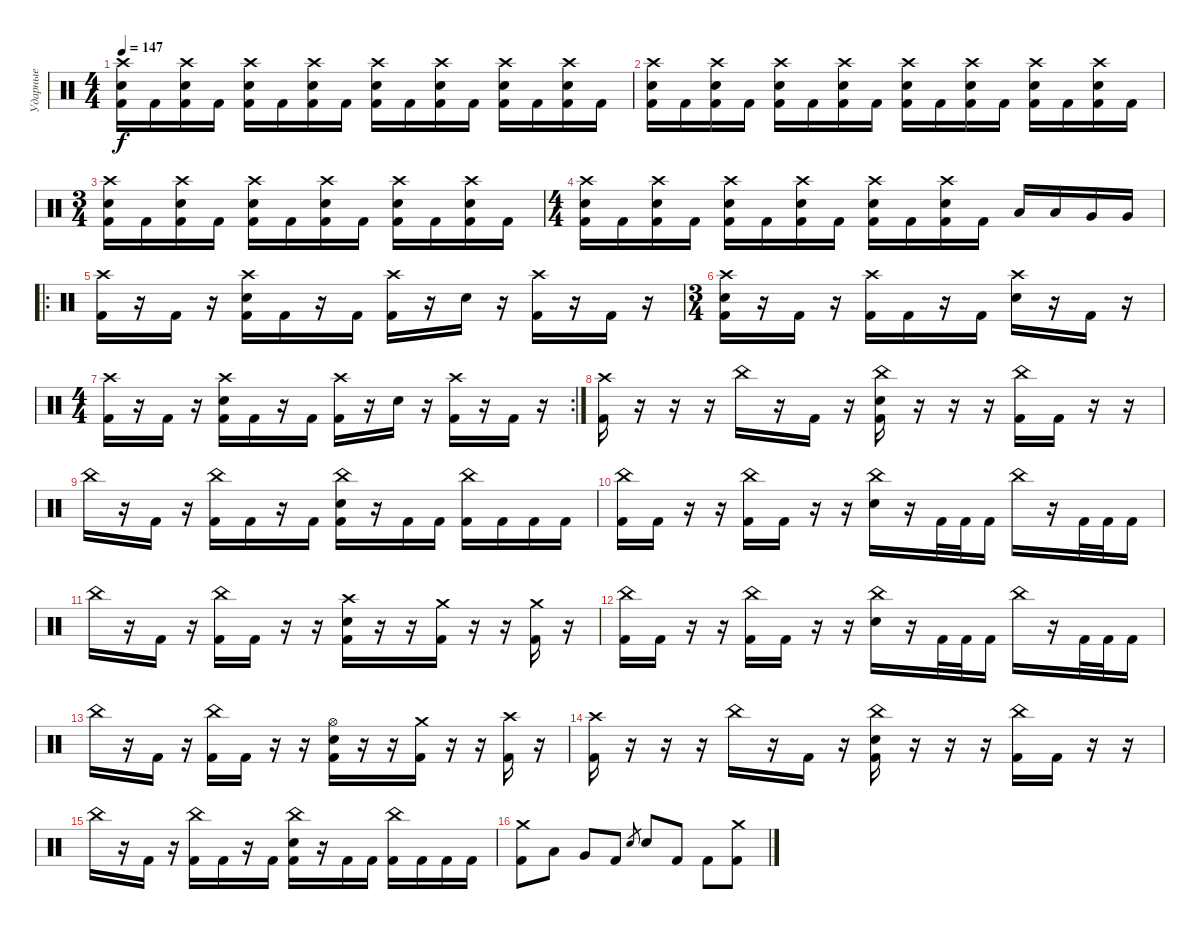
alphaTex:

\track ("Ударные" "Ударные") {instrument percussion}
\staff {score}
\articulation defaults
\ts (4 4)
\tempo 147
\clef neutral
\ks c
("Crash high (hit)" "Electric Snare (hit)" "Kick (hit) 2").16{dy f} "Kick (hit) 2".16 ("Crash high (hit)" "Electric Snare (hit)" "Kick (hit) 2").16 "Kick (hit) 2".16 ("Crash high (hit)" "Electric Snare (hit)" "Kick (hit) 2").16 "Kick (hit) 2".16 ("Crash high (hit)" "Electric Snare (hit)" "Kick (hit) 2").16 "Kick (hit) 2".16 ("Crash high (hit)" "Electric Snare (hit)" "Kick (hit) 2").16 "Kick (hit) 2".16 ("Crash high (hit)" "Electric Snare (hit)" "Kick (hit) 2").16 "Kick (hit) 2".16 ("Crash high (hit)" "Electric Snare (hit)" "Kick (hit) 2").16 "Kick (hit) 2".16 ("Crash high (hit)" "Electric Snare (hit)" "Kick (hit) 2").16 "Kick (hit) 2".16 |
("Crash high (hit)" "Electric Snare (hit)" "Kick (hit) 2").16 "Kick (hit) 2".16 ("Crash high (hit)" "Electric Snare (hit)" "Kick (hit) 2").16 "Kick (hit) 2".16 ("Crash high (hit)" "Electric Snare (hit)" "Kick (hit) 2").16 "Kick (hit) 2".16 ("Crash high (hit)" "Electric Snare (hit)" "Kick (hit) 2").16 "Kick (hit) 2".16 ("Crash high (hit)" "Electric Snare (hit)" "Kick (hit) 2").16 "Kick (hit) 2".16 ("Crash high (hit)" "Electric Snare (hit)" "Kick (hit) 2").16 "Kick (hit) 2".16 ("Crash high (hit)" "Electric Snare (hit)" "Kick (hit) 2").16 "Kick (hit) 2".16 ("Crash high (hit)" "Electric Snare (hit)" "Kick (hit) 2").16 "Kick (hit) 2".16 |
\ts (3 4)
("Crash high (hit)" "Electric Snare (hit)" "Kick (hit) 2").16 "Kick (hit) 2".16 ("Crash high (hit)" "Electric Snare (hit)" "Kick (hit) 2").16 "Kick (hit) 2".16 ("Crash high (hit)" "Electric Snare (hit)" "Kick (hit) 2").16 "Kick (hit) 2".16 ("Crash high (hit)" "Electric Snare (hit)" "Kick (hit) 2").16 "Kick (hit) 2".16 ("Crash high (hit)" "Electric Snare (hit)" "Kick (hit) 2").16 "Kick (hit) 2".16 ("Crash high (hit)" "Electric Snare (hit)" "Kick (hit) 2").16 "Kick (hit) 2".16 |
\ts (4 4)
("Crash high (hit)" "Electric Snare (hit)" "Kick (hit) 2").16 "Kick (hit) 2".16 ("Crash high (hit)" "Electric Snare (hit)" "Kick (hit) 2").16 "Kick (hit) 2".16 ("Crash high (hit)" "Electric Snare (hit)" "Kick (hit) 2").16 "Kick (hit) 2".16 ("Crash high (hit)" "Electric Snare (hit)" "Kick (hit) 2").16 "Kick (hit) 2".16 ("Crash high (hit)" "Electric Snare (hit)" "Kick (hit) 2").16 "Kick (hit) 2".16 ("Crash high (hit)" "Electric Snare (hit)" "Kick (hit) 2").16 "Kick (hit) 2".16 "Low Tom (hit)".16 "Low Tom (hit)".16 "Very Low Tom (hit)".16 "Very Low Tom (hit)".16 |
\ro
("Crash high (hit)" "Kick (hit) 2").16 r.16 "Kick (hit) 2".16 r.16 ("Crash high (hit)" "Electric Snare (hit)" "Kick (hit) 2").16 "Kick (hit) 2".16 r.16 "Kick (hit) 2".16 ("Crash high (hit)" "Kick (hit) 2").16 r.16 "Electric Snare (hit)".16 r.16 ("Crash high (hit)" "Kick (hit) 2").16 r.16 "Kick (hit) 2".16 r.16 |
\ts (3 4)
("Crash high (hit)" "Electric Snare (hit)" "Kick (hit) 2").16 r.16 "Kick (hit) 2".16 r.16 ("Crash high (hit)" "Kick (hit) 2").16 "Kick (hit) 2".16 r.16 "Kick (hit) 2".16 ("Crash high (hit)" "Electric Snare (hit)").16 r.16 "Kick (hit) 2".16 r.16 |
\rc 2
\ts (4 4)
("Crash high (hit)" "Kick (hit) 2").16 r.16 "Kick (hit) 2".16 r.16 ("Crash high (hit)" "Electric Snare (hit)" "Kick (hit) 2").16 "Kick (hit) 2".16 r.16 "Kick (hit) 2".16 ("Crash high (hit)" "Kick (hit) 2").16 r.16 "Electric Snare (hit)".16 r.16 ("Crash high (hit)" "Kick (hit) 2").16 r.16 "Kick (hit) 2".16 r.16 |
("Crash high (hit)" "Kick (hit) 2").16 r.16 r.16 r.16 "China (hit)".16 r.16 "Kick (hit) 2".16 r.16 ("China (hit)" "Electric Snare (hit)" "Kick (hit) 2").16 r.16 r.16 r.16 ("China (hit)" "Kick (hit) 2").16 "Kick (hit) 2".16 r.16 r.16 |
"China (hit)".16 r.16 "Kick (hit) 2".16 r.16 ("China (hit)" "Kick (hit) 2").16 "Kick (hit) 2".16 r.16 "Kick (hit) 2".16 ("China (hit)" "Electric Snare (hit)" "Kick (hit) 2").16 r.16 "Kick (hit) 2".16 "Kick (hit) 2".16 ("China (hit)" "Kick (hit) 2").16 "Kick (hit) 2".16 "Kick (hit) 2".16 "Kick (hit) 2".16 |
("China (hit)" "Kick (hit) 2").16 "Kick (hit) 2".16 r.16 r.16 ("China (hit)" "Kick (hit) 2").16 "Kick (hit) 2".16 r.16 r.16 ("China (hit)" "Electric Snare (hit)").16 r.16 "Kick (hit) 2".32 "Kick (hit) 2".32 "Kick (hit) 2".16 "China (hit)".16 r.16 "Kick (hit) 2".32 "Kick (hit) 2".32 "Kick (hit) 2".16 |
"China (hit)".16 r.16 "Kick (hit) 2".16 r.16 ("China (hit)" "Kick (hit) 2").16 "Kick (hit) 2".16 r.16 r.16 ("Crash high (hit)" "Electric Snare (hit)" "Kick (hit) 2").16 r.16 r.16 ("Crash medium (hit)" "Kick (hit) 2").16 r.16 r.16 ("Crash medium (hit)" "Kick (hit) 2").16 r.16 |
("China (hit)" "Kick (hit) 2").16 "Kick (hit) 2".16 r.16 r.16 ("China (hit)" "Kick (hit) 2").16 "Kick (hit) 2".16 r.16 r.16 ("China (hit)" "Electric Snare (hit)").16 r.16 "Kick (hit) 2".32 "Kick (hit) 2".32 "Kick (hit) 2".16 "China (hit)".16 r.16 "Kick (hit) 2".32 "Kick (hit) 2".32 "Kick (hit) 2".16 |
"China (hit)".16 r.16 "Kick (hit) 2".16 r.16 ("China (hit)" "Kick (hit) 2").16 "Kick (hit) 2".16 r.16 r.16 ("Hi-Hat (open)" "Electric Snare (hit)" "Kick (hit) 2").16 r.16 r.16 ("Crash medium (hit)" "Kick (hit) 2").16 r.16 r.16 ("Crash high (hit)" "Kick (hit) 2").16 r.16 |
("Crash high (hit)" "Kick (hit) 2").16 r.16 r.16 r.16 "China (hit)".16 r.16 "Kick (hit) 2".16 r.16 ("China (hit)" "Electric Snare (hit)" "Kick (hit) 2").16 r.16 r.16 r.16 ("China (hit)" "Kick (hit) 2").16 "Kick (hit) 2".16 r.16 r.16 |
"China (hit)".16 r.16 "Kick (hit) 2".16 r.16 ("China (hit)" "Kick (hit) 2").16 "Kick (hit) 2".16 r.16 "Kick (hit) 2".16 ("China (hit)" "Electric Snare (hit)" "Kick (hit) 2").16 r.16 "Kick (hit) 2".16 "Kick (hit) 2".16 ("China (hit)" "Kick (hit) 2").16 "Kick (hit) 2".16 "Kick (hit) 2".16 "Kick (hit) 2".16 |
("Crash medium (hit)" "Kick (hit) 2").8 "Low Tom (hit)".8 "Very Low Tom (hit)".8 "Kick (hit) 2".8 "Electric Snare (hit)".8{gr} "Electric Snare (hit)".8 "Kick (hit) 2".8 "Kick (hit) 2".8 ("Crash medium (hit)" "Kick (hit) 2").8
